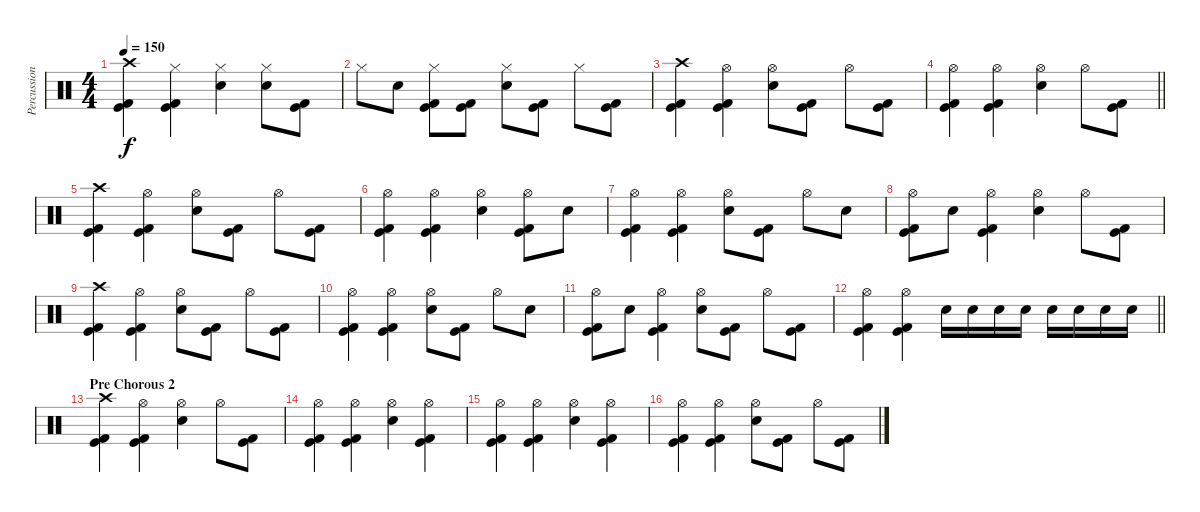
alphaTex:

\track ("Percussion" "Percussion") {instrument percussion}
\staff {score}
\articulation defaults
\ts (4 4)
\tempo 150
\clef neutral
\ks c
("Crash high (hit)" "Kick (hit)" "Kick (hit) 2").4{dy f} ("Hi-Hat (closed)" "Kick (hit)" "Kick (hit) 2").4 ("Hi-Hat (closed)" "Electric Snare (hit)").4 ("Hi-Hat (closed)" "Electric Snare (hit)").8 ("Kick (hit)" "Kick (hit) 2").8 |
"Hi-Hat (closed)".8 "Electric Snare (hit)".8 ("Hi-Hat (closed)" "Kick (hit)" "Kick (hit) 2").8 ("Kick (hit)" "Kick (hit) 2").8 ("Hi-Hat (closed)" "Electric Snare (hit)").8 ("Kick (hit)" "Kick (hit) 2").8 "Hi-Hat (closed)".8 ("Kick (hit)" "Kick (hit) 2").8 |
("Crash high (hit)" "Kick (hit)" "Kick (hit) 2").4 ("Hi-Hat (open)" "Kick (hit)" "Kick (hit) 2").4 ("Hi-Hat (open)" "Electric Snare (hit)").8 ("Kick (hit)" "Kick (hit) 2").8 "Hi-Hat (open)".8 ("Kick (hit)" "Kick (hit) 2").8 |
\barLineRight lightlight
("Hi-Hat (open)" "Kick (hit)" "Kick (hit) 2").4 ("Hi-Hat (open)" "Kick (hit)" "Kick (hit) 2").4 ("Hi-Hat (open)" "Electric Snare (hit)").4 "Hi-Hat (open)".8 ("Kick (hit)" "Kick (hit) 2").8 |
\section ("" "")
("Crash high (hit)" "Kick (hit)" "Kick (hit) 2").4 ("Hi-Hat (open)" "Kick (hit)" "Kick (hit) 2").4 ("Hi-Hat (open)" "Electric Snare (hit)").8 ("Kick (hit)" "Kick (hit) 2").8 "Hi-Hat (open)".8 ("Kick (hit)" "Kick (hit) 2").8 |
("Hi-Hat (open)" "Kick (hit)" "Kick (hit) 2").4 ("Hi-Hat (open)" "Kick (hit)" "Kick (hit) 2").4 ("Hi-Hat (open)" "Electric Snare (hit)").4 ("Hi-Hat (open)" "Kick (hit)" "Kick (hit) 2").8 "Electric Snare (hit)".8 |
("Hi-Hat (open)" "Kick (hit)" "Kick (hit) 2").4 ("Hi-Hat (open)" "Kick (hit)" "Kick (hit) 2").4 ("Hi-Hat (open)" "Electric Snare (hit)").8 ("Kick (hit)" "Kick (hit) 2").8 "Hi-Hat (open)".8 "Electric Snare (hit)".8 |
("Hi-Hat (open)" "Kick (hit)" "Kick (hit) 2").8 "Electric Snare (hit)".8 ("Hi-Hat (open)" "Kick (hit)" "Kick (hit) 2").4 ("Hi-Hat (open)" "Electric Snare (hit)").4 "Hi-Hat (open)".8 ("Kick (hit)" "Kick (hit) 2").8 |
("Crash high (hit)" "Kick (hit)" "Kick (hit) 2").4 ("Hi-Hat (open)" "Kick (hit)" "Kick (hit) 2").4 ("Hi-Hat (open)" "Electric Snare (hit)").8 ("Kick (hit)" "Kick (hit) 2").8 "Hi-Hat (open)".8 ("Kick (hit)" "Kick (hit) 2").8 |
("Hi-Hat (open)" "Kick (hit)" "Kick (hit) 2").4 ("Hi-Hat (open)" "Kick (hit)" "Kick (hit) 2").4 ("Hi-Hat (open)" "Electric Snare (hit)").8 ("Kick (hit)" "Kick (hit) 2").8 "Hi-Hat (open)".8 "Electric Snare (hit)".8 |
("Hi-Hat (open)" "Kick (hit)" "Kick (hit) 2").8 "Electric Snare (hit)".8 ("Hi-Hat (open)" "Kick (hit)" "Kick (hit) 2").4 ("Hi-Hat (open)" "Electric Snare (hit)").8 ("Kick (hit)" "Kick (hit) 2").8 "Hi-Hat (open)".8 ("Kick (hit)" "Kick (hit) 2").8 |
\barLineRight lightlight
("Hi-Hat (open)" "Kick (hit)" "Kick (hit) 2").4 ("Hi-Hat (open)" "Kick (hit)" "Kick (hit) 2").4 "Electric Snare (hit)".16 "Electric Snare (hit)".16 "Electric Snare (hit)".16 "Electric Snare (hit)".16 "Electric Snare (hit)".16 "Electric Snare (hit)".16 "Electric Snare (hit)".16 "Electric Snare (hit)".16 |
\section ("" "Pre Chorous 2")
("Crash high (hit)" "Kick (hit)" "Kick (hit) 2").4 ("Hi-Hat (open)" "Kick (hit)" "Kick (hit) 2").4 ("Hi-Hat (open)" "Electric Snare (hit)").4 "Hi-Hat (open)".8 ("Kick (hit)" "Kick (hit) 2").8 |
("Hi-Hat (open)" "Kick (hit)" "Kick (hit) 2").4 ("Hi-Hat (open)" "Kick (hit)" "Kick (hit) 2").4 ("Hi-Hat (open)" "Electric Snare (hit)").4 ("Hi-Hat (open)" "Kick (hit)" "Kick (hit) 2").4 |
("Hi-Hat (open)" "Kick (hit)" "Kick (hit) 2").4 ("Hi-Hat (open)" "Kick (hit)" "Kick (hit) 2").4 ("Hi-Hat (open)" "Electric Snare (hit)").4 ("Hi-Hat (open)" "Kick (hit)" "Kick (hit) 2").4 |
("Hi-Hat (open)" "Kick (hit)" "Kick (hit) 2").4 ("Hi-Hat (open)" "Kick (hit)" "Kick (hit) 2").4 ("Hi-Hat (open)" "Electric Snare (hit)").8 ("Kick (hit)" "Kick (hit) 2").8 "Hi-Hat (open)".8 ("Kick (hit)" "Kick (hit) 2").8
